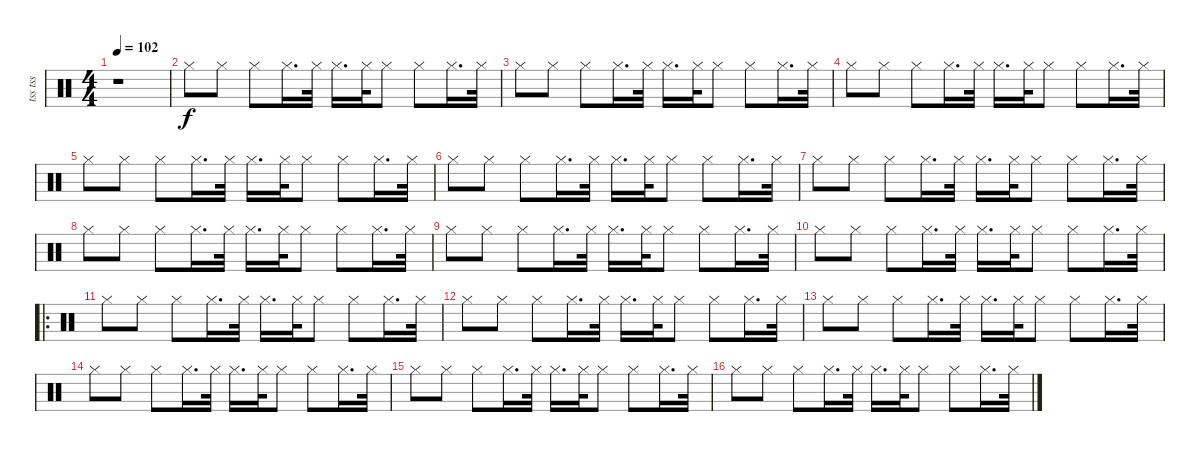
\track ("tss tss" "tss tss") {instrument percussion}
\staff {score}
\articulation defaults
\ts (4 4)
\tempo 102
\clef neutral
\ks c
r.1{dy f} |
"Hi-Hat (closed)".8 "Hi-Hat (closed)".8 "Hi-Hat (closed)".8 "Hi-Hat (closed)".16{d} "Hi-Hat (closed)".32 "Hi-Hat (closed)".16{d} "Hi-Hat (closed)".32 "Hi-Hat (closed)".8 "Hi-Hat (closed)".8 "Hi-Hat (closed)".16{d} "Hi-Hat (closed)".32 |
"Hi-Hat (closed)".8 "Hi-Hat (closed)".8 "Hi-Hat (closed)".8 "Hi-Hat (closed)".16{d} "Hi-Hat (closed)".32 "Hi-Hat (closed)".16{d} "Hi-Hat (closed)".32 "Hi-Hat (closed)".8 "Hi-Hat (closed)".8 "Hi-Hat (closed)".16{d} "Hi-Hat (closed)".32 |
"Hi-Hat (closed)".8 "Hi-Hat (closed)".8 "Hi-Hat (closed)".8 "Hi-Hat (closed)".16{d} "Hi-Hat (closed)".32 "Hi-Hat (closed)".16{d} "Hi-Hat (closed)".32 "Hi-Hat (closed)".8 "Hi-Hat (closed)".8 "Hi-Hat (closed)".16{d} "Hi-Hat (closed)".32 |
"Hi-Hat (closed)".8 "Hi-Hat (closed)".8 "Hi-Hat (closed)".8 "Hi-Hat (closed)".16{d} "Hi-Hat (closed)".32 "Hi-Hat (closed)".16{d} "Hi-Hat (closed)".32 "Hi-Hat (closed)".8 "Hi-Hat (closed)".8 "Hi-Hat (closed)".16{d} "Hi-Hat (closed)".32 |
"Hi-Hat (closed)".8 "Hi-Hat (closed)".8 "Hi-Hat (closed)".8 "Hi-Hat (closed)".16{d} "Hi-Hat (closed)".32 "Hi-Hat (closed)".16{d} "Hi-Hat (closed)".32 "Hi-Hat (closed)".8 "Hi-Hat (closed)".8 "Hi-Hat (closed)".16{d} "Hi-Hat (closed)".32 |
"Hi-Hat (closed)".8 "Hi-Hat (closed)".8 "Hi-Hat (closed)".8 "Hi-Hat (closed)".16{d} "Hi-Hat (closed)".32 "Hi-Hat (closed)".16{d} "Hi-Hat (closed)".32 "Hi-Hat (closed)".8 "Hi-Hat (closed)".8 "Hi-Hat (closed)".16{d} "Hi-Hat (closed)".32 |
"Hi-Hat (closed)".8 "Hi-Hat (closed)".8 "Hi-Hat (closed)".8 "Hi-Hat (closed)".16{d} "Hi-Hat (closed)".32 "Hi-Hat (closed)".16{d} "Hi-Hat (closed)".32 "Hi-Hat (closed)".8 "Hi-Hat (closed)".8 "Hi-Hat (closed)".16{d} "Hi-Hat (closed)".32 |
"Hi-Hat (closed)".8 "Hi-Hat (closed)".8 "Hi-Hat (closed)".8 "Hi-Hat (closed)".16{d} "Hi-Hat (closed)".32 "Hi-Hat (closed)".16{d} "Hi-Hat (closed)".32 "Hi-Hat (closed)".8 "Hi-Hat (closed)".8 "Hi-Hat (closed)".16{d} "Hi-Hat (closed)".32 |
"Hi-Hat (closed)".8 "Hi-Hat (closed)".8 "Hi-Hat (closed)".8 "Hi-Hat (closed)".16{d} "Hi-Hat (closed)".32 "Hi-Hat (closed)".16{d} "Hi-Hat (closed)".32 "Hi-Hat (closed)".8 "Hi-Hat (closed)".8 "Hi-Hat (closed)".16{d} "Hi-Hat (closed)".32 |
\ro "Hi-Hat (closed)".8 "Hi-Hat (closed)".8 "Hi-Hat (closed)".8 "Hi-Hat (closed)".16{d} "Hi-Hat (closed)".32 "Hi-Hat (closed)".16{d} "Hi-Hat (closed)".32 "Hi-Hat (closed)".8 "Hi-Hat (closed)".8 "Hi-Hat (closed)".16{d} "Hi-Hat (closed)".32
|
"Hi-Hat (closed)".8 "Hi-Hat (closed)".8 "Hi-Hat (closed)".8 "Hi-Hat (closed)".16{d} "Hi-Hat (closed)".32 "Hi-Hat (closed)".16{d} "Hi-Hat (closed)".32 "Hi-Hat (closed)".8 "Hi-Hat (closed)".8 "Hi-Hat (closed)".16{d} "Hi-Hat (closed)".32 |
"Hi-Hat (closed)".8 "Hi-Hat (closed)".8 "Hi-Hat (closed)".8 "Hi-Hat (closed)".16{d} "Hi-Hat (closed)".32 "Hi-Hat (closed)".16{d} "Hi-Hat (closed)".32 "Hi-Hat (closed)".8 "Hi-Hat (closed)".8 "Hi-Hat (closed)".16{d} "Hi-Hat (closed)".32 |
"Hi-Hat (closed)".8 "Hi-Hat (closed)".8 "Hi-Hat (closed)".8 "Hi-Hat (closed)".16{d} "Hi-Hat (closed)".32 "Hi-Hat (closed)".16{d} "Hi-Hat (closed)".32 "Hi-Hat (closed)".8 "Hi-Hat (closed)".8 "Hi-Hat (closed)".16{d} "Hi-Hat (closed)".32 |
"Hi-Hat (closed)".8 "Hi-Hat (closed)".8 "Hi-Hat (closed)".8 "Hi-Hat (closed)".16{d} "Hi-Hat (closed)".32 "Hi-Hat (closed)".16{d} "Hi-Hat (closed)".32 "Hi-Hat (closed)".8 "Hi-Hat (closed)".8 "Hi-Hat (closed)".16{d} "Hi-Hat (closed)".32 |
"Hi-Hat (closed)".8 "Hi-Hat (closed)".8 "Hi-Hat (closed)".8 "Hi-Hat (closed)".16{d} "Hi-Hat (closed)".32 "Hi-Hat (closed)".16{d} "Hi-Hat (closed)".32 "Hi-Hat (closed)".8 "Hi-Hat (closed)".8 "Hi-Hat (closed)".16{d} "Hi-Hat (closed)".32
